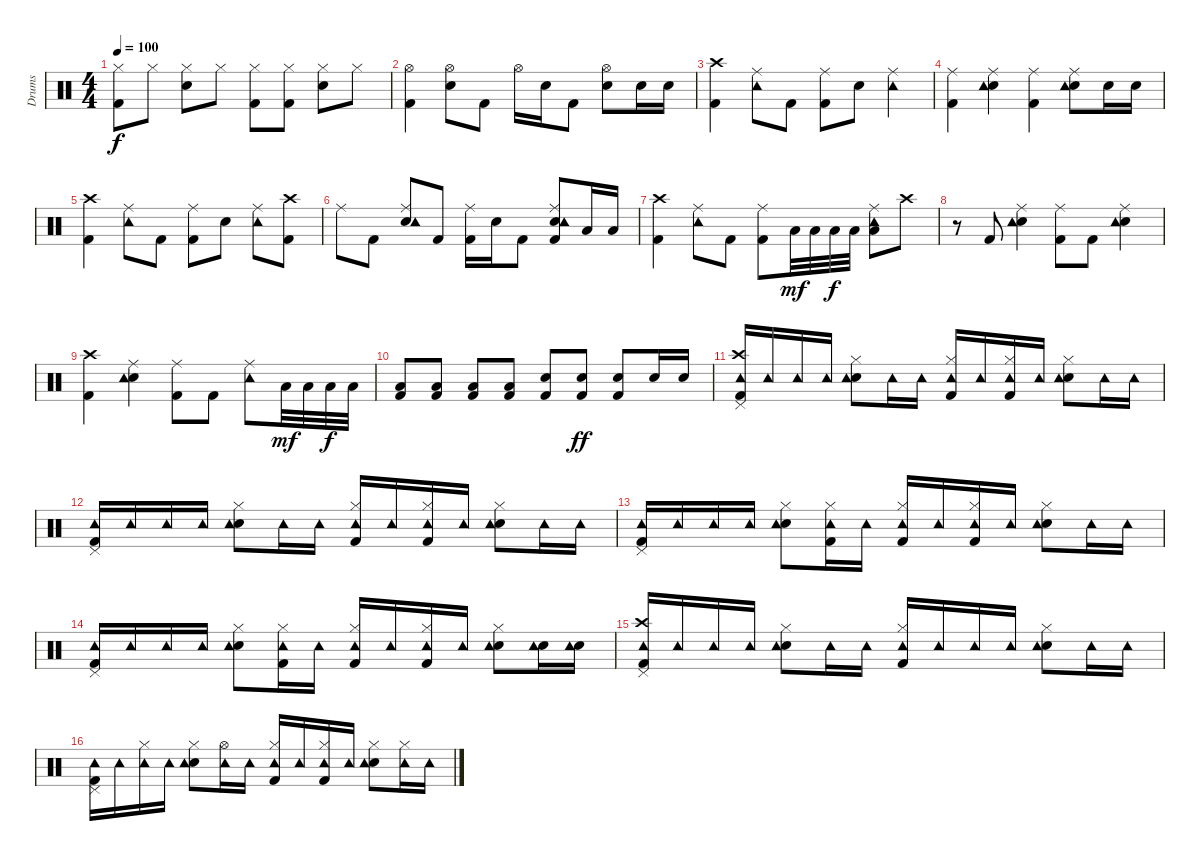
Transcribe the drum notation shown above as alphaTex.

\track ("Drums" "Drums") {instrument percussion}
\staff {score}
\articulation defaults
\ts (4 4)
\tempo 100
\clef neutral
\ks c
("Kick (hit) 2" "Hi-Hat (closed)").8{dy f} "Hi-Hat (closed)".8 ("Snare (hit) 2" "Hi-Hat (closed)").8 "Hi-Hat (closed)".8 ("Kick (hit) 2" "Hi-Hat (closed)").8 ("Kick (hit) 2" "Hi-Hat (closed)").8 ("Snare (hit) 2" "Hi-Hat (closed)").8 "Hi-Hat (closed)".8 |
("Kick (hit) 2" "Hi-Hat (open)").4 ("Snare (hit) 2" "Hi-Hat (open)").8 "Kick (hit) 2".8 "Hi-Hat (open)".16 "Snare (hit) 2".16 "Kick (hit) 2".8 ("Snare (hit) 2" "Hi-Hat (open)").8 "Snare (hit) 2".16 "Snare (hit) 2".16 |
("Kick (hit) 2" "Crash high (hit)").4 ("Ride (middle)" "Tambourine (hit)").8 "Kick (hit) 2".8 ("Kick (hit) 2" "Ride (middle)").8 "Snare (hit) 2".8 ("Ride (middle)" "Tambourine (hit)").4 |
("Kick (hit) 2" "Ride (middle)").4 ("Snare (hit) 2" "Ride (middle)" "Tambourine (hit)").4 ("Kick (hit) 2" "Ride (middle)").4 ("Snare (hit) 2" "Ride (middle)" "Tambourine (hit)").8 "Snare (hit) 2".16 "Snare (hit) 2".16 |
("Kick (hit) 2" "Crash high (hit)").4 ("Ride (middle)" "Tambourine (hit)").8 "Kick (hit) 2".8 ("Kick (hit) 2" "Ride (middle)").8 "Snare (hit) 2".8 ("Ride (middle)" "Tambourine (hit)").8 ("Kick (hit) 2" "Crash high (hit)").8 |
"Ride (middle)".8 "Kick (hit) 2".8 ("Snare (hit) 2" "Ride (middle)" "Tambourine (hit)").8 "Kick (hit) 2".8 ("Kick (hit) 2" "Ride (middle)").16 "Snare (hit) 2".16 "Kick (hit) 2".8 ("Kick (hit) 2" "Snare (hit) 2" "Ride (middle)" "Tambourine (hit)").8 "Low Floor Tom (hit)".16 "Low Floor Tom (hit)".16 |
("Kick (hit) 2" "Crash high (hit)").4 ("Ride (middle)" "Tambourine (hit)").8 "Kick (hit) 2".8 ("Kick (hit) 2" "Ride (middle)").8 "Low Tom (hit)".32{dy mf} "Low Tom (hit)".32 "Low Tom (hit)".32{dy f} "Low Tom (hit)".32 ("Low Floor Tom (hit)" "Ride (middle)" "Tambourine (hit)").8 "Crash high (hit)".8 |
r.8 "Kick (hit) 2".8 ("Snare (hit) 2" "Ride (middle)" "Tambourine (hit)").4 ("Kick (hit) 2" "Ride (middle)").8 "Kick (hit) 2".8 ("Snare (hit) 2" "Ride (middle)" "Tambourine (hit)").4 |
("Kick (hit) 2" "Crash high (hit)").4 ("Snare (hit) 2" "Ride (middle)" "Tambourine (hit)").4 ("Kick (hit) 2" "Ride (middle)").8 "Kick (hit) 2".8 ("Ride (middle)" "Tambourine (hit)").8 "Low Tom (hit)".32{dy mf} "Low Tom (hit)".32 "Low Tom (hit)".32{dy f} "Low Tom (hit)".32 |
("Kick (hit) 2" "Low Floor Tom (hit)").8 ("Kick (hit) 2" "Low Floor Tom (hit)").8 ("Kick (hit) 2" "Low Floor Tom (hit)").8 ("Kick (hit) 2" "Low Floor Tom (hit)").8 ("Kick (hit) 2" "Snare (hit) 2").8 ("Kick (hit) 2" "Snare (hit) 2").8{dy ff} ("Kick (hit) 2" "Snare (hit) 2").8 "Snare (hit) 2".16 "Snare (hit) 2".16 |
("Kick (hit) 2" "Pedal Hi-Hat (hit)" "Crash high (hit)" "Tambourine (hit)").16 "Tambourine (hit)".16 "Tambourine (hit)".16 "Tambourine (hit)".16 ("Snare (hit) 2" "Hi-Hat (closed)" "Tambourine (hit)").8 "Tambourine (hit)".16 "Tambourine (hit)".16 ("Kick (hit) 2" "Hi-Hat (closed)" "Tambourine (hit)").16 "Tambourine (hit)".16 ("Kick (hit) 2" "Hi-Hat (closed)" "Tambourine (hit)").16 "Tambourine (hit)".16 ("Snare (hit) 2" "Hi-Hat (closed)" "Tambourine (hit)").8 "Tambourine (hit)".16 "Tambourine (hit)".16 |
("Kick (hit) 2" "Pedal Hi-Hat (hit)" "Tambourine (hit)").16 "Tambourine (hit)".16 "Tambourine (hit)".16 "Tambourine (hit)".16 ("Snare (hit) 2" "Hi-Hat (closed)" "Tambourine (hit)").8 "Tambourine (hit)".16 "Tambourine (hit)".16 ("Kick (hit) 2" "Hi-Hat (closed)" "Tambourine (hit)").16 "Tambourine (hit)".16 ("Kick (hit) 2" "Hi-Hat (closed)" "Tambourine (hit)").16 "Tambourine (hit)".16 ("Snare (hit) 2" "Hi-Hat (closed)" "Tambourine (hit)").8 "Tambourine (hit)".16 "Tambourine (hit)".16 |
("Kick (hit) 2" "Pedal Hi-Hat (hit)" "Tambourine (hit)").16 "Tambourine (hit)".16 "Tambourine (hit)".16 "Tambourine (hit)".16 ("Snare (hit) 2" "Hi-Hat (closed)" "Tambourine (hit)").8 ("Kick (hit) 2" "Hi-Hat (closed)" "Tambourine (hit)").16 "Tambourine (hit)".16 ("Kick (hit) 2" "Hi-Hat (closed)" "Tambourine (hit)").16 "Tambourine (hit)".16 ("Kick (hit) 2" "Hi-Hat (closed)" "Tambourine (hit)").16 "Tambourine (hit)".16 ("Snare (hit) 2" "Hi-Hat (closed)" "Tambourine (hit)").8 "Tambourine (hit)".16 "Tambourine (hit)".16 |
("Kick (hit) 2" "Pedal Hi-Hat (hit)" "Tambourine (hit)").16 "Tambourine (hit)".16 "Tambourine (hit)".16 "Tambourine (hit)".16 ("Snare (hit) 2" "Hi-Hat (closed)" "Tambourine (hit)").8 ("Kick (hit) 2" "Hi-Hat (closed)" "Tambourine (hit)").16 "Tambourine (hit)".16 ("Kick (hit) 2" "Hi-Hat (closed)" "Tambourine (hit)").16 "Tambourine (hit)".16 ("Kick (hit) 2" "Hi-Hat (closed)" "Tambourine (hit)").16 "Tambourine (hit)".16 ("Snare (hit) 2" "Hi-Hat (closed)" "Tambourine (hit)").8 ("Snare (hit) 2" "Tambourine (hit)").16 ("Snare (hit) 2" "Tambourine (hit)").16 |
("Kick (hit) 2" "Pedal Hi-Hat (hit)" "Crash high (hit)" "Tambourine (hit)").16 "Tambourine (hit)".16 "Tambourine (hit)".16 "Tambourine (hit)".16 ("Snare (hit) 2" "Hi-Hat (closed)" "Tambourine (hit)").8 "Tambourine (hit)".16 "Tambourine (hit)".16 ("Kick (hit) 2" "Hi-Hat (closed)" "Tambourine (hit)").16 "Tambourine (hit)".16 "Tambourine (hit)".16 "Tambourine (hit)".16 ("Snare (hit) 2" "Hi-Hat (closed)" "Tambourine (hit)").8 "Tambourine (hit)".16 "Tambourine (hit)".16 |
("Kick (hit) 2" "Pedal Hi-Hat (hit)" "Tambourine (hit)").16 "Tambourine (hit)".16 ("Hi-Hat (closed)" "Tambourine (hit)").16 "Tambourine (hit)".16 ("Snare (hit) 2" "Hi-Hat (closed)" "Tambourine (hit)").8 ("Hi-Hat (open)" "Tambourine (hit)").16 "Tambourine (hit)".16 ("Kick (hit) 2" "Hi-Hat (closed)" "Tambourine (hit)").16 "Tambourine (hit)".16 ("Kick (hit) 2" "Hi-Hat (closed)" "Tambourine (hit)").16 "Tambourine (hit)".16 ("Snare (hit) 2" "Hi-Hat (closed)" "Tambourine (hit)").8 ("Hi-Hat (closed)" "Tambourine (hit)").16 "Tambourine (hit)".16
